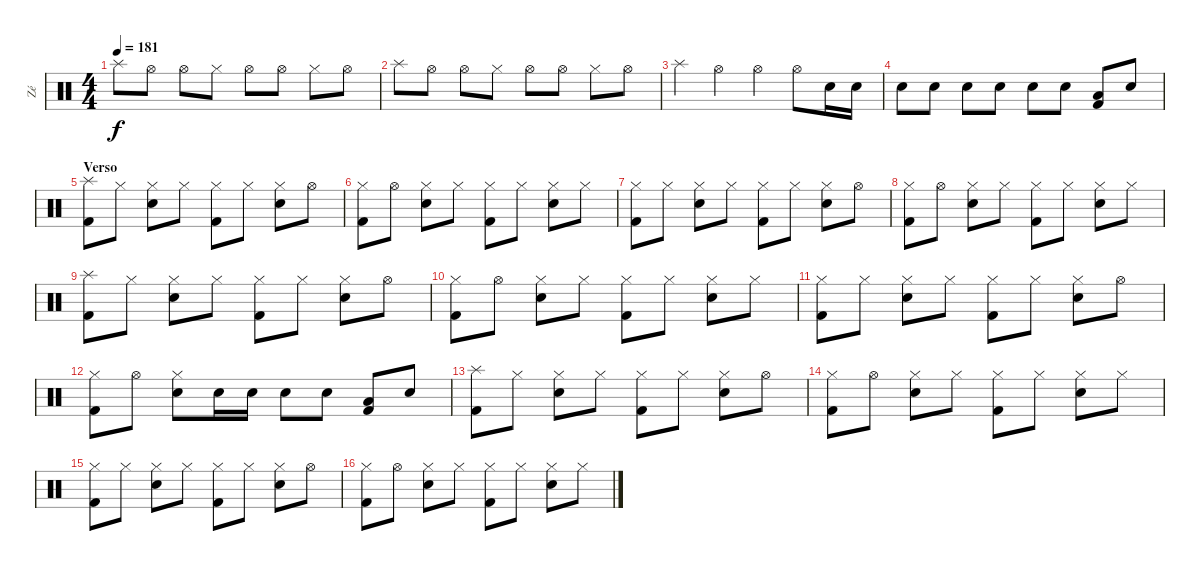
\track ("Zé" "Zé") {instrument percussion}
\staff {score}
\articulation defaults
\ts (4 4)
\tempo 181
\clef neutral
\ks c "Splash (hit)".8{dy f} "Hi-Hat (open)".8 "Hi-Hat (open)".8 "Hi-Hat (closed)".8 "Hi-Hat (open)".8 "Hi-Hat (open)".8 "Hi-Hat (closed)".8 "Hi-Hat (open)".8
|
"Splash (hit)".8 "Hi-Hat (open)".8 "Hi-Hat (open)".8 "Hi-Hat (closed)".8 "Hi-Hat (open)".8 "Hi-Hat (open)".8 "Hi-Hat (closed)".8 "Hi-Hat (open)".8 |
"Splash (hit)".4 "Hi-Hat (open)".4 "Hi-Hat (open)".4 "Hi-Hat (open)".8 "Snare (hit) 2".16 "Snare (hit) 2".16 |
"Snare (hit) 2".8 "Snare (hit) 2".8 "Snare (hit) 2".8 "Snare (hit) 2".8 "Snare (hit) 2".8 "Snare (hit) 2".8 ("Low Tom (hit)" "Kick (hit) 2").8 "Snare (hit) 2".8 |
\section ("" "Verso")
("Splash (hit)" "Kick (hit) 2").8 "Hi-Hat (closed)".8 ("Hi-Hat (closed)" "Snare (hit) 2").8 "Hi-Hat (closed)".8 ("Hi-Hat (closed)" "Kick (hit) 2").8 "Hi-Hat (closed)".8 ("Hi-Hat (closed)" "Snare (hit) 2").8 "Hi-Hat (open)".8 |
("Hi-Hat (closed)" "Kick (hit) 2").8 "Hi-Hat (open)".8 ("Hi-Hat (closed)" "Snare (hit) 2").8 "Hi-Hat (closed)".8 ("Hi-Hat (closed)" "Kick (hit) 2").8 "Hi-Hat (closed)".8 ("Hi-Hat (closed)" "Snare (hit) 2").8 "Hi-Hat (closed)".8 |
("Hi-Hat (closed)" "Kick (hit) 2").8 "Hi-Hat (closed)".8 ("Hi-Hat (closed)" "Snare (hit) 2").8 "Hi-Hat (closed)".8 ("Hi-Hat (closed)" "Kick (hit) 2").8 "Hi-Hat (closed)".8 ("Hi-Hat (closed)" "Snare (hit) 2").8 "Hi-Hat (open)".8 |
("Hi-Hat (closed)" "Kick (hit) 2").8 "Hi-Hat (open)".8 ("Hi-Hat (closed)" "Snare (hit) 2").8 "Hi-Hat (closed)".8 ("Hi-Hat (closed)" "Kick (hit) 2").8 "Hi-Hat (closed)".8 ("Hi-Hat (closed)" "Snare (hit) 2").8 "Hi-Hat (closed)".8 |
("Splash (hit)" "Kick (hit) 2").8 "Hi-Hat (closed)".8 ("Hi-Hat (closed)" "Snare (hit) 2").8 "Hi-Hat (closed)".8 ("Hi-Hat (closed)" "Kick (hit) 2").8 "Hi-Hat (closed)".8 ("Hi-Hat (closed)" "Snare (hit) 2").8 "Hi-Hat (open)".8 |
("Hi-Hat (closed)" "Kick (hit) 2").8 "Hi-Hat (open)".8 ("Hi-Hat (closed)" "Snare (hit) 2").8 "Hi-Hat (closed)".8 ("Hi-Hat (closed)" "Kick (hit) 2").8 "Hi-Hat (closed)".8 ("Hi-Hat (closed)" "Snare (hit) 2").8 "Hi-Hat (closed)".8 |
("Hi-Hat (closed)" "Kick (hit) 2").8 "Hi-Hat (closed)".8 ("Hi-Hat (closed)" "Snare (hit) 2").8 "Hi-Hat (closed)".8 ("Hi-Hat (closed)" "Kick (hit) 2").8 "Hi-Hat (closed)".8 ("Hi-Hat (closed)" "Snare (hit) 2").8 "Hi-Hat (open)".8 |
("Hi-Hat (closed)" "Kick (hit) 2").8 "Hi-Hat (open)".8 ("Hi-Hat (closed)" "Snare (hit) 2").8 "Snare (hit) 2".16 "Snare (hit) 2".16 "Snare (hit) 2".8 "Snare (hit) 2".8 ("Low Tom (hit)" "Kick (hit) 2").8 "Snare (hit) 2".8 |
("Splash (hit)" "Kick (hit) 2").8 "Hi-Hat (closed)".8 ("Hi-Hat (closed)" "Snare (hit) 2").8 "Hi-Hat (closed)".8 ("Hi-Hat (closed)" "Kick (hit) 2").8 "Hi-Hat (closed)".8 ("Hi-Hat (closed)" "Snare (hit) 2").8 "Hi-Hat (open)".8 |
("Hi-Hat (closed)" "Kick (hit) 2").8 "Hi-Hat (open)".8 ("Hi-Hat (closed)" "Snare (hit) 2").8 "Hi-Hat (closed)".8 ("Hi-Hat (closed)" "Kick (hit) 2").8 "Hi-Hat (closed)".8 ("Hi-Hat (closed)" "Snare (hit) 2").8 "Hi-Hat (closed)".8 |
("Hi-Hat (closed)" "Kick (hit) 2").8 "Hi-Hat (closed)".8 ("Hi-Hat (closed)" "Snare (hit) 2").8 "Hi-Hat (closed)".8 ("Hi-Hat (closed)" "Kick (hit) 2").8 "Hi-Hat (closed)".8 ("Hi-Hat (closed)" "Snare (hit) 2").8 "Hi-Hat (open)".8 |
("Hi-Hat (closed)" "Kick (hit) 2").8 "Hi-Hat (open)".8 ("Hi-Hat (closed)" "Snare (hit) 2").8 "Hi-Hat (closed)".8 ("Hi-Hat (closed)" "Kick (hit) 2").8 "Hi-Hat (closed)".8 ("Hi-Hat (closed)" "Snare (hit) 2").8 "Hi-Hat (closed)".8
